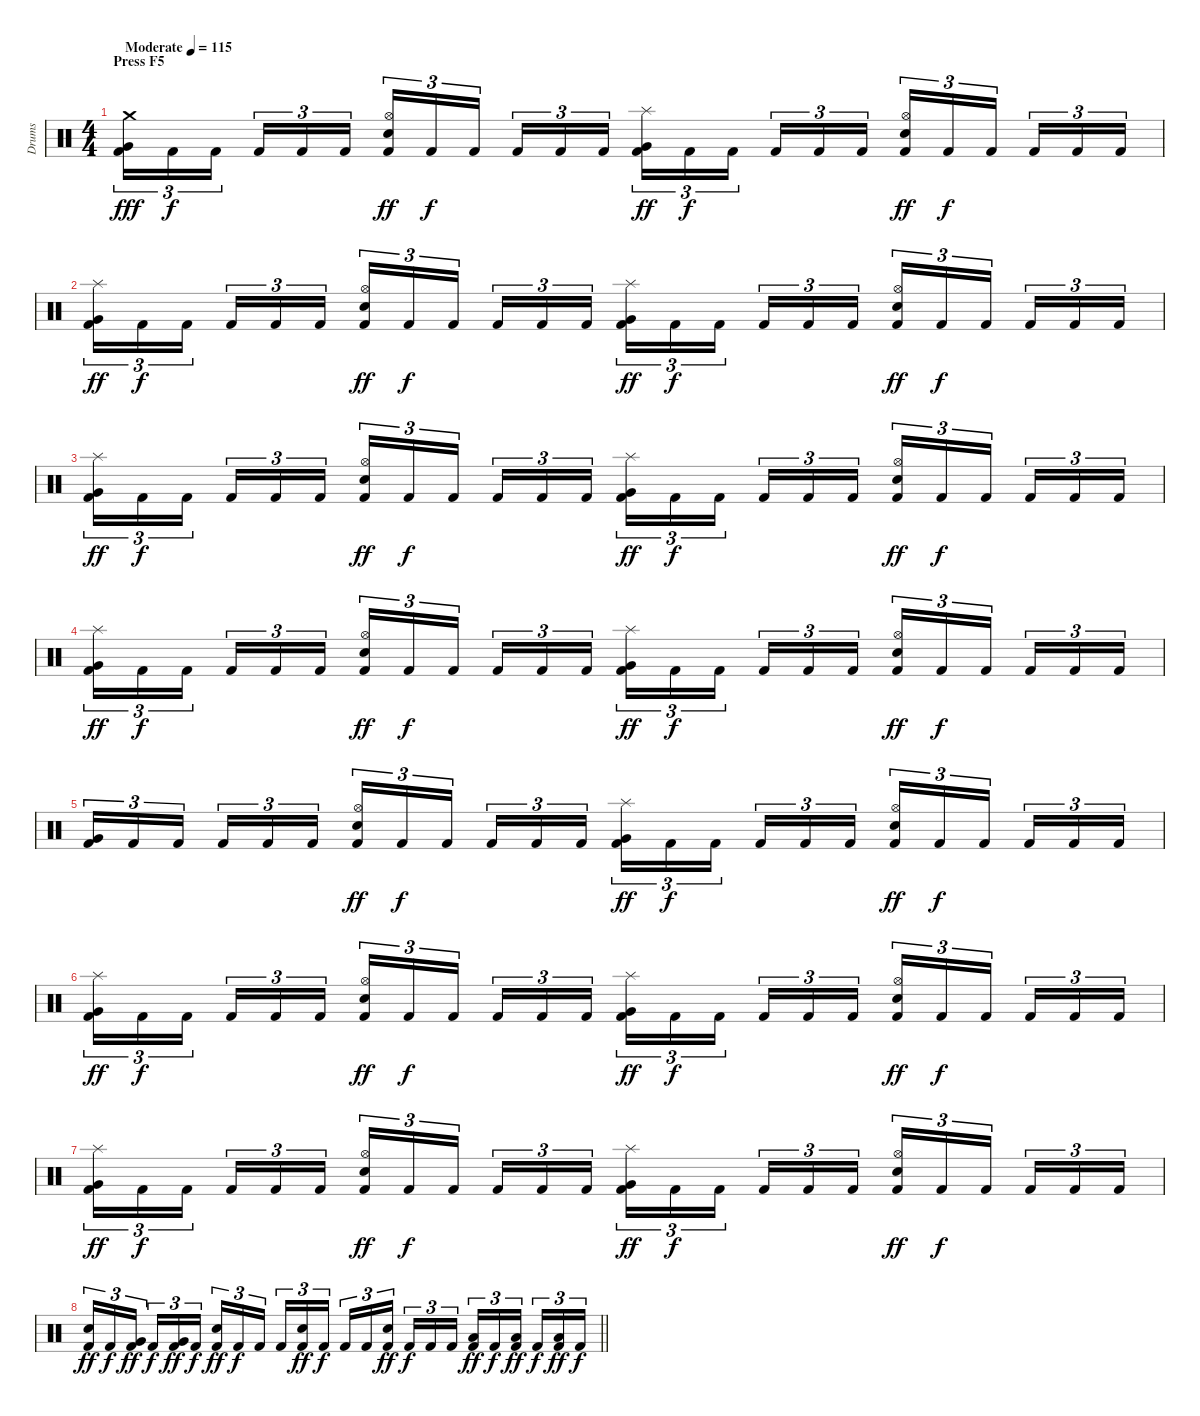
\track ("Drums" "Drums") {instrument percussion}
\staff {score}
\articulation defaults
\ts (4 4)
\section ("" "Press F5")
\tempo (115 "Moderate")
\clef neutral
\ks c
("Crash medium (hit)" "Very Low Tom (hit)" "Kick (hit) 2").16{tu (3 2) dy fff} "Kick (hit) 2".16{tu (3 2) dy f} "Kick (hit) 2".16{tu (3 2) beam splitsecondary} "Kick (hit) 2".16{tu (3 2)} "Kick (hit) 2".16{tu (3 2)} "Kick (hit) 2".16{tu (3 2)} ("Hi-Hat (open)" "Snare (hit) 2" "Kick (hit) 2").16{tu (3 2) dy ff} "Kick (hit) 2".16{tu (3 2) dy f} "Kick (hit) 2".16{tu (3 2) beam splitsecondary} "Kick (hit) 2".16{tu (3 2)} "Kick (hit) 2".16{tu (3 2)} "Kick (hit) 2".16{tu (3 2)} ("Splash (hit)" "Very Low Tom (hit)" "Kick (hit) 2").16{tu (3 2) dy ff} "Kick (hit) 2".16{tu (3 2) dy f} "Kick (hit) 2".16{tu (3 2) beam splitsecondary} "Kick (hit) 2".16{tu (3 2)} "Kick (hit) 2".16{tu (3 2)} "Kick (hit) 2".16{tu (3 2)} ("Hi-Hat (open)" "Snare (hit) 2" "Kick (hit) 2").16{tu (3 2) dy ff} "Kick (hit) 2".16{tu (3 2) dy f} "Kick (hit) 2".16{tu (3 2) beam splitsecondary} "Kick (hit) 2".16{tu (3 2)} "Kick (hit) 2".16{tu (3 2)} "Kick (hit) 2".16{tu (3 2)} |
("Splash (hit)" "Very Low Tom (hit)" "Kick (hit) 2").16{tu (3 2) dy ff} "Kick (hit) 2".16{tu (3 2) dy f} "Kick (hit) 2".16{tu (3 2) beam splitsecondary} "Kick (hit) 2".16{tu (3 2)} "Kick (hit) 2".16{tu (3 2)} "Kick (hit) 2".16{tu (3 2)} ("Hi-Hat (open)" "Snare (hit) 2" "Kick (hit) 2").16{tu (3 2) dy ff} "Kick (hit) 2".16{tu (3 2) dy f} "Kick (hit) 2".16{tu (3 2) beam splitsecondary} "Kick (hit) 2".16{tu (3 2)} "Kick (hit) 2".16{tu (3 2)} "Kick (hit) 2".16{tu (3 2)} ("Splash (hit)" "Very Low Tom (hit)" "Kick (hit) 2").16{tu (3 2) dy ff} "Kick (hit) 2".16{tu (3 2) dy f} "Kick (hit) 2".16{tu (3 2) beam splitsecondary} "Kick (hit) 2".16{tu (3 2)} "Kick (hit) 2".16{tu (3 2)} "Kick (hit) 2".16{tu (3 2)} ("Hi-Hat (open)" "Snare (hit) 2" "Kick (hit) 2").16{tu (3 2) dy ff} "Kick (hit) 2".16{tu (3 2) dy f} "Kick (hit) 2".16{tu (3 2) beam splitsecondary} "Kick (hit) 2".16{tu (3 2)} "Kick (hit) 2".16{tu (3 2)} "Kick (hit) 2".16{tu (3 2)} |
("Splash (hit)" "Very Low Tom (hit)" "Kick (hit) 2").16{tu (3 2) dy ff} "Kick (hit) 2".16{tu (3 2) dy f} "Kick (hit) 2".16{tu (3 2) beam splitsecondary} "Kick (hit) 2".16{tu (3 2)} "Kick (hit) 2".16{tu (3 2)} "Kick (hit) 2".16{tu (3 2)} ("Hi-Hat (open)" "Snare (hit) 2" "Kick (hit) 2").16{tu (3 2) dy ff} "Kick (hit) 2".16{tu (3 2) dy f} "Kick (hit) 2".16{tu (3 2) beam splitsecondary} "Kick (hit) 2".16{tu (3 2)} "Kick (hit) 2".16{tu (3 2)} "Kick (hit) 2".16{tu (3 2)} ("Splash (hit)" "Very Low Tom (hit)" "Kick (hit) 2").16{tu (3 2) dy ff} "Kick (hit) 2".16{tu (3 2) dy f} "Kick (hit) 2".16{tu (3 2) beam splitsecondary} "Kick (hit) 2".16{tu (3 2)} "Kick (hit) 2".16{tu (3 2)} "Kick (hit) 2".16{tu (3 2)} ("Hi-Hat (open)" "Snare (hit) 2" "Kick (hit) 2").16{tu (3 2) dy ff} "Kick (hit) 2".16{tu (3 2) dy f} "Kick (hit) 2".16{tu (3 2) beam splitsecondary} "Kick (hit) 2".16{tu (3 2)} "Kick (hit) 2".16{tu (3 2)} "Kick (hit) 2".16{tu (3 2)} |
("Splash (hit)" "Very Low Tom (hit)" "Kick (hit) 2").16{tu (3 2) dy ff} "Kick (hit) 2".16{tu (3 2) dy f} "Kick (hit) 2".16{tu (3 2) beam splitsecondary} "Kick (hit) 2".16{tu (3 2)} "Kick (hit) 2".16{tu (3 2)} "Kick (hit) 2".16{tu (3 2)} ("Hi-Hat (open)" "Snare (hit) 2" "Kick (hit) 2").16{tu (3 2) dy ff} "Kick (hit) 2".16{tu (3 2) dy f} "Kick (hit) 2".16{tu (3 2) beam splitsecondary} "Kick (hit) 2".16{tu (3 2)} "Kick (hit) 2".16{tu (3 2)} "Kick (hit) 2".16{tu (3 2)} ("Splash (hit)" "Very Low Tom (hit)" "Kick (hit) 2").16{tu (3 2) dy ff} "Kick (hit) 2".16{tu (3 2) dy f} "Kick (hit) 2".16{tu (3 2) beam splitsecondary} "Kick (hit) 2".16{tu (3 2)} "Kick (hit) 2".16{tu (3 2)} "Kick (hit) 2".16{tu (3 2)} ("Hi-Hat (open)" "Snare (hit) 2" "Kick (hit) 2").16{tu (3 2) dy ff} "Kick (hit) 2".16{tu (3 2) dy f} "Kick (hit) 2".16{tu (3 2) beam splitsecondary} "Kick (hit) 2".16{tu (3 2)} "Kick (hit) 2".16{tu (3 2)} "Kick (hit) 2".16{tu (3 2)} |
("Very Low Tom (hit)" "Kick (hit) 2").16{tu (3 2)} "Kick (hit) 2".16{tu (3 2)} "Kick (hit) 2".16{tu (3 2) beam splitsecondary} "Kick (hit) 2".16{tu (3 2)} "Kick (hit) 2".16{tu (3 2)} "Kick (hit) 2".16{tu (3 2)} ("Hi-Hat (open)" "Snare (hit) 2" "Kick (hit) 2").16{tu (3 2) dy ff} "Kick (hit) 2".16{tu (3 2) dy f} "Kick (hit) 2".16{tu (3 2) beam splitsecondary} "Kick (hit) 2".16{tu (3 2)} "Kick (hit) 2".16{tu (3 2)} "Kick (hit) 2".16{tu (3 2)} ("Splash (hit)" "Very Low Tom (hit)" "Kick (hit) 2").16{tu (3 2) dy ff} "Kick (hit) 2".16{tu (3 2) dy f} "Kick (hit) 2".16{tu (3 2) beam splitsecondary} "Kick (hit) 2".16{tu (3 2)} "Kick (hit) 2".16{tu (3 2)} "Kick (hit) 2".16{tu (3 2)} ("Hi-Hat (open)" "Snare (hit) 2" "Kick (hit) 2").16{tu (3 2) dy ff} "Kick (hit) 2".16{tu (3 2) dy f} "Kick (hit) 2".16{tu (3 2) beam splitsecondary} "Kick (hit) 2".16{tu (3 2)} "Kick (hit) 2".16{tu (3 2)} "Kick (hit) 2".16{tu (3 2)} |
("Splash (hit)" "Very Low Tom (hit)" "Kick (hit) 2").16{tu (3 2) dy ff} "Kick (hit) 2".16{tu (3 2) dy f} "Kick (hit) 2".16{tu (3 2) beam splitsecondary} "Kick (hit) 2".16{tu (3 2)} "Kick (hit) 2".16{tu (3 2)} "Kick (hit) 2".16{tu (3 2)} ("Hi-Hat (open)" "Snare (hit) 2" "Kick (hit) 2").16{tu (3 2) dy ff} "Kick (hit) 2".16{tu (3 2) dy f} "Kick (hit) 2".16{tu (3 2) beam splitsecondary} "Kick (hit) 2".16{tu (3 2)} "Kick (hit) 2".16{tu (3 2)} "Kick (hit) 2".16{tu (3 2)} ("Splash (hit)" "Very Low Tom (hit)" "Kick (hit) 2").16{tu (3 2) dy ff} "Kick (hit) 2".16{tu (3 2) dy f} "Kick (hit) 2".16{tu (3 2) beam splitsecondary} "Kick (hit) 2".16{tu (3 2)} "Kick (hit) 2".16{tu (3 2)} "Kick (hit) 2".16{tu (3 2)} ("Hi-Hat (open)" "Snare (hit) 2" "Kick (hit) 2").16{tu (3 2) dy ff} "Kick (hit) 2".16{tu (3 2) dy f} "Kick (hit) 2".16{tu (3 2) beam splitsecondary} "Kick (hit) 2".16{tu (3 2)} "Kick (hit) 2".16{tu (3 2)} "Kick (hit) 2".16{tu (3 2)} |
("Splash (hit)" "Very Low Tom (hit)" "Kick (hit) 2").16{tu (3 2) dy ff} "Kick (hit) 2".16{tu (3 2) dy f} "Kick (hit) 2".16{tu (3 2) beam splitsecondary} "Kick (hit) 2".16{tu (3 2)} "Kick (hit) 2".16{tu (3 2)} "Kick (hit) 2".16{tu (3 2)} ("Hi-Hat (open)" "Snare (hit) 2" "Kick (hit) 2").16{tu (3 2) dy ff} "Kick (hit) 2".16{tu (3 2) dy f} "Kick (hit) 2".16{tu (3 2) beam splitsecondary} "Kick (hit) 2".16{tu (3 2)} "Kick (hit) 2".16{tu (3 2)} "Kick (hit) 2".16{tu (3 2)} ("Splash (hit)" "Very Low Tom (hit)" "Kick (hit) 2").16{tu (3 2) dy ff} "Kick (hit) 2".16{tu (3 2) dy f} "Kick (hit) 2".16{tu (3 2) beam splitsecondary} "Kick (hit) 2".16{tu (3 2)} "Kick (hit) 2".16{tu (3 2)} "Kick (hit) 2".16{tu (3 2)} ("Hi-Hat (open)" "Snare (hit) 2" "Kick (hit) 2").16{tu (3 2) dy ff} "Kick (hit) 2".16{tu (3 2) dy f} "Kick (hit) 2".16{tu (3 2) beam splitsecondary} "Kick (hit) 2".16{tu (3 2)} "Kick (hit) 2".16{tu (3 2)} "Kick (hit) 2".16{tu (3 2)} |
\barLineRight lightlight
("Snare (hit) 2" "Kick (hit) 2").16{tu (3 2) dy ff} "Kick (hit) 2".16{tu (3 2) dy f} ("Very Low Tom (hit)" "Kick (hit) 2").16{tu (3 2) dy ff beam splitsecondary} "Kick (hit) 2".16{tu (3 2) dy f} ("Very Low Tom (hit)" "Kick (hit) 2").16{tu (3 2) dy ff} "Kick (hit) 2".16{tu (3 2) dy f} ("Snare (hit) 2" "Kick (hit) 2").16{tu (3 2) dy ff} "Kick (hit) 2".16{tu (3 2) dy f} "Kick (hit) 2".16{tu (3 2) beam splitsecondary} "Kick (hit) 2".16{tu (3 2)} ("Snare (hit) 2" "Kick (hit) 2").16{tu (3 2) dy ff} "Kick (hit) 2".16{tu (3 2) dy f} "Kick (hit) 2".16{tu (3 2)} "Kick (hit) 2".16{tu (3 2)} ("Snare (hit) 2" "Kick (hit) 2").16{tu (3 2) dy ff beam splitsecondary} "Kick (hit) 2".16{tu (3 2) dy f} "Kick (hit) 2".16{tu (3 2)} "Kick (hit) 2".16{tu (3 2)} ("Low Floor Tom (hit)" "Kick (hit) 2").16{tu (3 2) dy ff} "Kick (hit) 2".16{tu (3 2) dy f} ("Low Floor Tom (hit)" "Kick (hit) 2").16{tu (3 2) dy ff beam splitsecondary} "Kick (hit) 2".16{tu (3 2) dy f} ("Low Floor Tom (hit)" "Kick (hit) 2").16{tu (3 2) dy ff} "Kick (hit) 2".16{tu (3 2) dy f}
